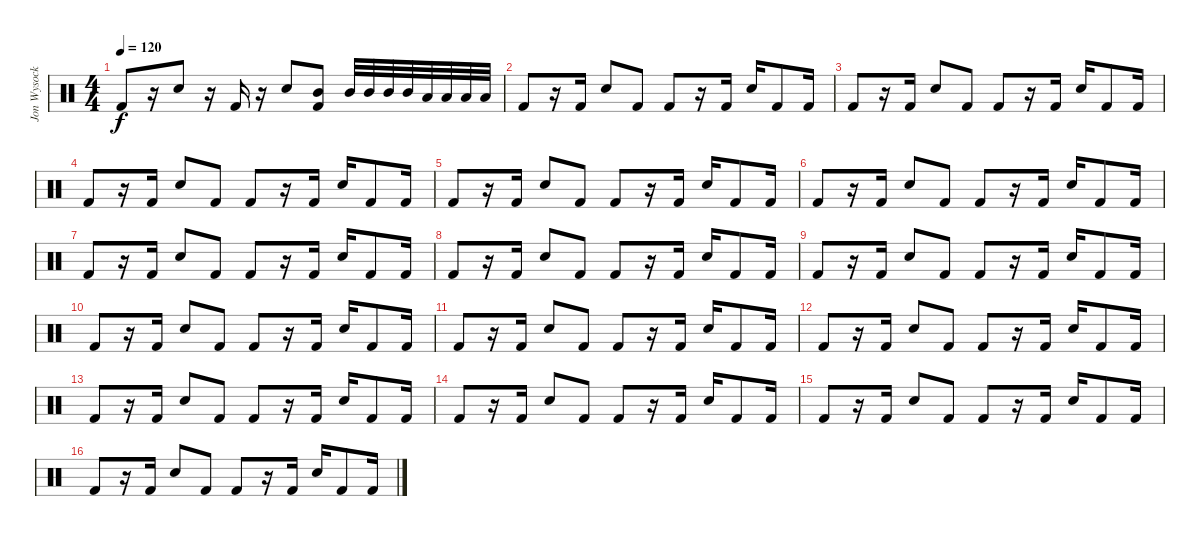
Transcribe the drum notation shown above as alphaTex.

\track ("Jon Wysocki" "Jon Wysock") {instrument percussion}
\staff {score}
\articulation defaults
\ts (4 4)
\tempo 120
\clef neutral
\ks c "Kick (hit) 2".8{dy f}
r.16 "Electric Snare (hit)".8 r.16 "Kick (hit) 2".16 r.16 "Electric Snare (hit)".8 ("Mid Tom (hit)" "Kick (hit) 2").8 "Mid Tom (hit)".32 "Mid Tom (hit)".32 "Mid Tom (hit)".32 "Mid Tom (hit)".32 "Low Tom (hit)".32 "Low Tom (hit)".32 "Low Tom (hit)".32 "Low Tom (hit)".32 |
"Kick (hit) 2".8 r.16 "Kick (hit) 2".16 "Electric Snare (hit)".8 "Kick (hit) 2".8 "Kick (hit) 2".8 r.16 "Kick (hit) 2".16 "Electric Snare (hit)".16 "Kick (hit) 2".8 "Kick (hit) 2".16 |
"Kick (hit) 2".8 r.16 "Kick (hit) 2".16 "Electric Snare (hit)".8 "Kick (hit) 2".8 "Kick (hit) 2".8 r.16 "Kick (hit) 2".16 "Electric Snare (hit)".16 "Kick (hit) 2".8 "Kick (hit) 2".16 |
"Kick (hit) 2".8 r.16 "Kick (hit) 2".16 "Electric Snare (hit)".8 "Kick (hit) 2".8 "Kick (hit) 2".8 r.16 "Kick (hit) 2".16 "Electric Snare (hit)".16 "Kick (hit) 2".8 "Kick (hit) 2".16 |
"Kick (hit) 2".8 r.16 "Kick (hit) 2".16 "Electric Snare (hit)".8 "Kick (hit) 2".8 "Kick (hit) 2".8 r.16 "Kick (hit) 2".16 "Electric Snare (hit)".16 "Kick (hit) 2".8 "Kick (hit) 2".16 |
"Kick (hit) 2".8 r.16 "Kick (hit) 2".16 "Electric Snare (hit)".8 "Kick (hit) 2".8 "Kick (hit) 2".8 r.16 "Kick (hit) 2".16 "Electric Snare (hit)".16 "Kick (hit) 2".8 "Kick (hit) 2".16 |
"Kick (hit) 2".8 r.16 "Kick (hit) 2".16 "Electric Snare (hit)".8 "Kick (hit) 2".8 "Kick (hit) 2".8 r.16 "Kick (hit) 2".16 "Electric Snare (hit)".16 "Kick (hit) 2".8 "Kick (hit) 2".16 |
"Kick (hit) 2".8 r.16 "Kick (hit) 2".16 "Electric Snare (hit)".8 "Kick (hit) 2".8 "Kick (hit) 2".8 r.16 "Kick (hit) 2".16 "Electric Snare (hit)".16 "Kick (hit) 2".8 "Kick (hit) 2".16 |
"Kick (hit) 2".8 r.16 "Kick (hit) 2".16 "Electric Snare (hit)".8 "Kick (hit) 2".8 "Kick (hit) 2".8 r.16 "Kick (hit) 2".16 "Electric Snare (hit)".16 "Kick (hit) 2".8 "Kick (hit) 2".16 |
"Kick (hit) 2".8 r.16 "Kick (hit) 2".16 "Electric Snare (hit)".8 "Kick (hit) 2".8 "Kick (hit) 2".8 r.16 "Kick (hit) 2".16 "Electric Snare (hit)".16 "Kick (hit) 2".8 "Kick (hit) 2".16 |
"Kick (hit) 2".8 r.16 "Kick (hit) 2".16 "Electric Snare (hit)".8 "Kick (hit) 2".8 "Kick (hit) 2".8 r.16 "Kick (hit) 2".16 "Electric Snare (hit)".16 "Kick (hit) 2".8 "Kick (hit) 2".16 |
"Kick (hit) 2".8 r.16 "Kick (hit) 2".16 "Electric Snare (hit)".8 "Kick (hit) 2".8 "Kick (hit) 2".8 r.16 "Kick (hit) 2".16 "Electric Snare (hit)".16 "Kick (hit) 2".8 "Kick (hit) 2".16 |
"Kick (hit) 2".8 r.16 "Kick (hit) 2".16 "Electric Snare (hit)".8 "Kick (hit) 2".8 "Kick (hit) 2".8 r.16 "Kick (hit) 2".16 "Electric Snare (hit)".16 "Kick (hit) 2".8 "Kick (hit) 2".16 |
"Kick (hit) 2".8 r.16 "Kick (hit) 2".16 "Electric Snare (hit)".8 "Kick (hit) 2".8 "Kick (hit) 2".8 r.16 "Kick (hit) 2".16 "Electric Snare (hit)".16 "Kick (hit) 2".8 "Kick (hit) 2".16 |
"Kick (hit) 2".8 r.16 "Kick (hit) 2".16 "Electric Snare (hit)".8 "Kick (hit) 2".8 "Kick (hit) 2".8 r.16 "Kick (hit) 2".16 "Electric Snare (hit)".16 "Kick (hit) 2".8 "Kick (hit) 2".16 |
"Kick (hit) 2".8 r.16 "Kick (hit) 2".16 "Electric Snare (hit)".8 "Kick (hit) 2".8 "Kick (hit) 2".8 r.16 "Kick (hit) 2".16 "Electric Snare (hit)".16 "Kick (hit) 2".8 "Kick (hit) 2".16
